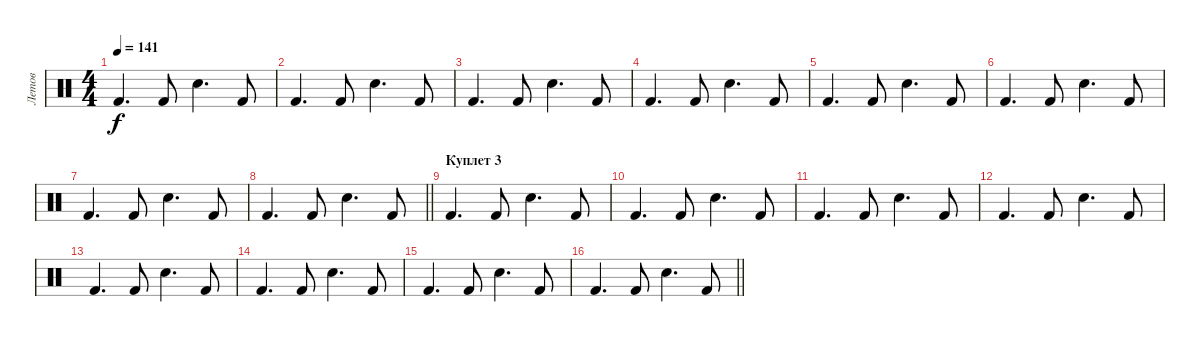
\track ("Летов" "Летов") {instrument percussion}
\staff {score}
\articulation defaults
\ts (4 4)
\tempo 141
\clef neutral
\ks c "Kick (hit) 2".4{d dy f} "Kick (hit) 2".8 "Electric Snare (hit)".4{d} "Kick (hit) 2".8
|
"Kick (hit) 2".4{d} "Kick (hit) 2".8 "Electric Snare (hit)".4{d} "Kick (hit) 2".8 |
"Kick (hit) 2".4{d} "Kick (hit) 2".8 "Electric Snare (hit)".4{d} "Kick (hit) 2".8 |
"Kick (hit) 2".4{d} "Kick (hit) 2".8 "Electric Snare (hit)".4{d} "Kick (hit) 2".8 |
"Kick (hit) 2".4{d} "Kick (hit) 2".8 "Electric Snare (hit)".4{d} "Kick (hit) 2".8 |
"Kick (hit) 2".4{d} "Kick (hit) 2".8 "Electric Snare (hit)".4{d} "Kick (hit) 2".8 |
"Kick (hit) 2".4{d} "Kick (hit) 2".8 "Electric Snare (hit)".4{d} "Kick (hit) 2".8 |
\barLineRight lightlight "Kick (hit) 2".4{d} "Kick (hit) 2".8 "Electric Snare (hit)".4{d} "Kick (hit) 2".8
|
\section ("" "Куплет 3")
"Kick (hit) 2".4{d} "Kick (hit) 2".8 "Electric Snare (hit)".4{d} "Kick (hit) 2".8 |
"Kick (hit) 2".4{d} "Kick (hit) 2".8 "Electric Snare (hit)".4{d} "Kick (hit) 2".8 |
"Kick (hit) 2".4{d} "Kick (hit) 2".8 "Electric Snare (hit)".4{d} "Kick (hit) 2".8 |
"Kick (hit) 2".4{d} "Kick (hit) 2".8 "Electric Snare (hit)".4{d} "Kick (hit) 2".8 |
"Kick (hit) 2".4{d} "Kick (hit) 2".8 "Electric Snare (hit)".4{d} "Kick (hit) 2".8 |
"Kick (hit) 2".4{d} "Kick (hit) 2".8 "Electric Snare (hit)".4{d} "Kick (hit) 2".8 |
"Kick (hit) 2".4{d} "Kick (hit) 2".8 "Electric Snare (hit)".4{d} "Kick (hit) 2".8 |
\barLineRight lightlight "Kick (hit) 2".4{d} "Kick (hit) 2".8 "Electric Snare (hit)".4{d} "Kick (hit) 2".8
